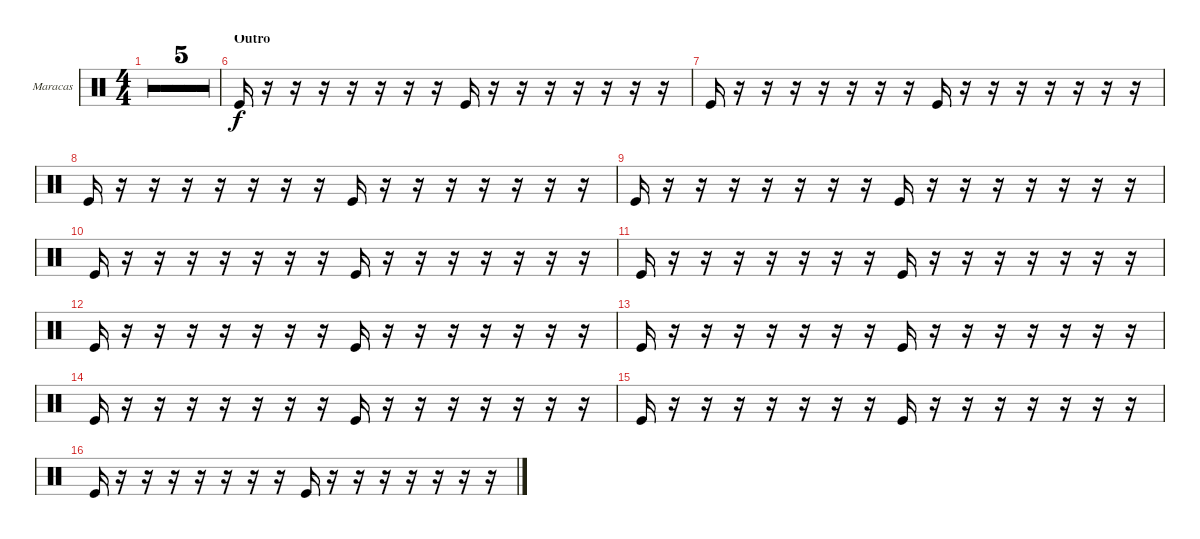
\bracketExtendMode groupsimilarinstruments
\firstSystemTrackNameOrientation horizontal
\otherSystemsTrackNameOrientation horizontal
\track ("Maracas" "Maracas") {multiBarRest instrument percussion}
\staff {score}
\articulation defaults
\ts (4 4)
\tempo 90
\clef neutral
\ks c
r.16{dy f} r.16 r.16 r.16 r.16 r.16 r.16 r.16 r.16 r.16 r.16 r.16 r.16 r.16 r.16 r.16 |
r.16 r.16 r.16 r.16 r.16 r.16 r.16 r.16 r.16 r.16 r.16 r.16 r.16 r.16 r.16 r.16 |
r.16 r.16 r.16 r.16 r.16 r.16 r.16 r.16 r.16 r.16 r.16 r.16 r.16 r.16 r.16 r.16 |
r.16 r.16 r.16 r.16 r.16 r.16 r.16 r.16 r.16 r.16 r.16 r.16 r.16 r.16 r.16 r.16 |
r.16 r.16 r.16 r.16 r.16 r.16 r.16 r.16 r.16 r.16 r.16 r.16 r.16 r.16 r.16 r.16 |
\section ("" "Outro")
"Kick (hit)".16 r.16 r.16 r.16 r.16 r.16 r.16 r.16 "Kick (hit)".16 r.16 r.16 r.16 r.16 r.16 r.16 r.16 |
"Kick (hit)".16 r.16 r.16 r.16 r.16 r.16 r.16 r.16 "Kick (hit)".16 r.16 r.16 r.16 r.16 r.16 r.16 r.16 |
"Kick (hit)".16 r.16 r.16 r.16 r.16 r.16 r.16 r.16 "Kick (hit)".16 r.16 r.16 r.16 r.16 r.16 r.16 r.16 |
"Kick (hit)".16 r.16 r.16 r.16 r.16 r.16 r.16 r.16 "Kick (hit)".16 r.16 r.16 r.16 r.16 r.16 r.16 r.16 |
"Kick (hit)".16 r.16 r.16 r.16 r.16 r.16 r.16 r.16 "Kick (hit)".16 r.16 r.16 r.16 r.16 r.16 r.16 r.16 |
"Kick (hit)".16 r.16 r.16 r.16 r.16 r.16 r.16 r.16 "Kick (hit)".16 r.16 r.16 r.16 r.16 r.16 r.16 r.16 |
"Kick (hit)".16 r.16 r.16 r.16 r.16 r.16 r.16 r.16 "Kick (hit)".16 r.16 r.16 r.16 r.16 r.16 r.16 r.16 |
"Kick (hit)".16 r.16 r.16 r.16 r.16 r.16 r.16 r.16 "Kick (hit)".16 r.16 r.16 r.16 r.16 r.16 r.16 r.16 |
"Kick (hit)".16 r.16 r.16 r.16 r.16 r.16 r.16 r.16 "Kick (hit)".16 r.16 r.16 r.16 r.16 r.16 r.16 r.16 |
"Kick (hit)".16 r.16 r.16 r.16 r.16 r.16 r.16 r.16 "Kick (hit)".16 r.16 r.16 r.16 r.16 r.16 r.16 r.16 |
"Kick (hit)".16 r.16 r.16 r.16 r.16 r.16 r.16 r.16 "Kick (hit)".16 r.16 r.16 r.16 r.16 r.16 r.16 r.16
